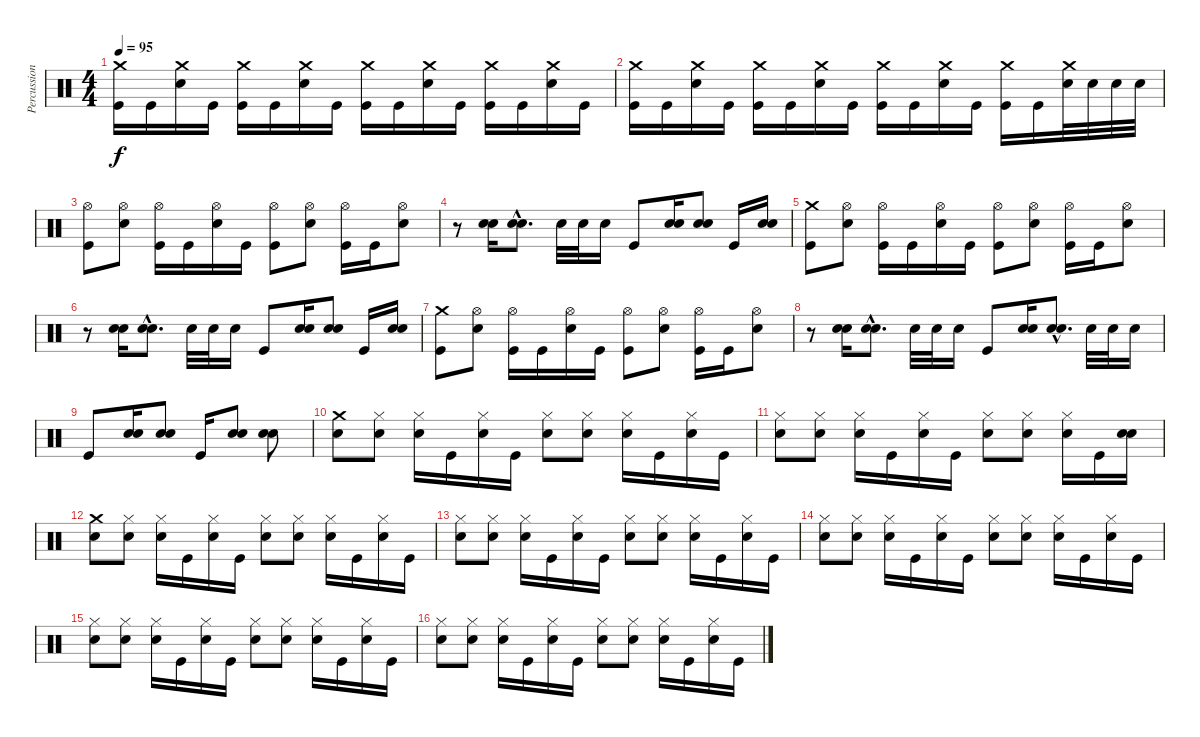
\track ("Percussion" "Percussion") {instrument percussion}
\staff {score}
\articulation defaults
\ts (4 4)
\tempo 95
\clef neutral
\ks c
("Crash medium (hit)" "Kick (hit)").16{dy f} "Kick (hit)".16 ("Crash medium (hit)" "Electric Snare (hit)").16 "Kick (hit)".16 ("Crash medium (hit)" "Kick (hit)").16 "Kick (hit)".16 ("Crash medium (hit)" "Electric Snare (hit)").16 "Kick (hit)".16 ("Crash medium (hit)" "Kick (hit)").16 "Kick (hit)".16 ("Crash medium (hit)" "Electric Snare (hit)").16 "Kick (hit)".16 ("Crash medium (hit)" "Kick (hit)").16 "Kick (hit)".16 ("Crash medium (hit)" "Electric Snare (hit)").16 "Kick (hit)".16 |
("Crash medium (hit)" "Kick (hit)").16 "Kick (hit)".16 ("Crash medium (hit)" "Electric Snare (hit)").16 "Kick (hit)".16 ("Crash medium (hit)" "Kick (hit)").16 "Kick (hit)".16 ("Crash medium (hit)" "Electric Snare (hit)").16 "Kick (hit)".16 ("Crash medium (hit)" "Kick (hit)").16 "Kick (hit)".16 ("Crash medium (hit)" "Electric Snare (hit)").16 "Kick (hit)".16 ("Crash medium (hit)" "Kick (hit)").16 "Kick (hit)".16 ("Crash medium (hit)" "Electric Snare (hit)").32 "Electric Snare (hit)".32 "Electric Snare (hit)".32 "Electric Snare (hit)".32 |
("Hi-Hat (open)" "Kick (hit)").8 ("Hi-Hat (open)" "Electric Snare (hit)").8 ("Hi-Hat (open)" "Kick (hit)").16 "Kick (hit)".16 ("Hi-Hat (open)" "Electric Snare (hit)").16 "Kick (hit)".16 ("Hi-Hat (open)" "Kick (hit)").8 ("Hi-Hat (open)" "Electric Snare (hit)").8 ("Hi-Hat (open)" "Kick (hit)").16 "Kick (hit)".16 ("Hi-Hat (open)" "Electric Snare (hit)").8 |
r.8 ("Electric Snare (hit)" "Electric Snare (hit)").16 ("Electric Snare (hit)"{hac} "Electric Snare (hit)"{hac}).8{d} "Electric Snare (hit)".32 "Electric Snare (hit)".32 "Electric Snare (hit)".16 "Kick (hit)".8 ("Electric Snare (hit)" "Electric Snare (hit)").16 ("Electric Snare (hit)" "Electric Snare (hit)").8 "Kick (hit)".16 ("Electric Snare (hit)" "Electric Snare (hit)").16 |
("Crash medium (hit)" "Kick (hit)").8 ("Hi-Hat (open)" "Electric Snare (hit)").8 ("Hi-Hat (open)" "Kick (hit)").16 "Kick (hit)".16 ("Hi-Hat (open)" "Electric Snare (hit)").16 "Kick (hit)".16 ("Hi-Hat (open)" "Kick (hit)").8 ("Hi-Hat (open)" "Electric Snare (hit)").8 ("Hi-Hat (open)" "Kick (hit)").16 "Kick (hit)".16 ("Hi-Hat (open)" "Electric Snare (hit)").8 |
r.8 ("Electric Snare (hit)" "Electric Snare (hit)").16 ("Electric Snare (hit)"{hac} "Electric Snare (hit)"{hac}).8{d} "Electric Snare (hit)".32 "Electric Snare (hit)".32 "Electric Snare (hit)".16 "Kick (hit)".8 ("Electric Snare (hit)" "Electric Snare (hit)").16 ("Electric Snare (hit)" "Electric Snare (hit)").8 "Kick (hit)".16 ("Electric Snare (hit)" "Electric Snare (hit)").16 |
("Crash medium (hit)" "Kick (hit)").8 ("Hi-Hat (open)" "Electric Snare (hit)").8 ("Hi-Hat (open)" "Kick (hit)").16 "Kick (hit)".16 ("Hi-Hat (open)" "Electric Snare (hit)").16 "Kick (hit)".16 ("Hi-Hat (open)" "Kick (hit)").8 ("Hi-Hat (open)" "Electric Snare (hit)").8 ("Hi-Hat (open)" "Kick (hit)").16 "Kick (hit)".16 ("Hi-Hat (open)" "Electric Snare (hit)").8 |
r.8 ("Electric Snare (hit)" "Electric Snare (hit)").16 ("Electric Snare (hit)"{hac} "Electric Snare (hit)"{hac}).8{d} "Electric Snare (hit)".32 "Electric Snare (hit)".32 "Electric Snare (hit)".16 "Kick (hit)".8 ("Electric Snare (hit)" "Electric Snare (hit)").16 ("Electric Snare (hit)"{hac} "Electric Snare (hit)"{hac}).8{d} "Electric Snare (hit)".32 "Electric Snare (hit)".32 "Electric Snare (hit)".16 |
"Kick (hit)".8 ("Electric Snare (hit)" "Electric Snare (hit)").16 ("Electric Snare (hit)" "Electric Snare (hit)").8 "Kick (hit)".16 ("Electric Snare (hit)" "Electric Snare (hit)").8 ("Electric Snare (hit)" "Electric Snare (hit)").8 |
("Crash medium (hit)" "Electric Snare (hit)").8 ("Hi-Hat (closed)" "Electric Snare (hit)").8 ("Hi-Hat (closed)" "Electric Snare (hit)").16 "Kick (hit)".16 ("Hi-Hat (closed)" "Electric Snare (hit)").16 "Kick (hit)".16 ("Hi-Hat (closed)" "Electric Snare (hit)").8 ("Hi-Hat (closed)" "Electric Snare (hit)").8 ("Hi-Hat (closed)" "Electric Snare (hit)").16 "Kick (hit)".16 ("Hi-Hat (closed)" "Electric Snare (hit)").16 "Kick (hit)".16 |
("Hi-Hat (closed)" "Electric Snare (hit)").8 ("Hi-Hat (closed)" "Electric Snare (hit)").8 ("Hi-Hat (closed)" "Electric Snare (hit)").16 "Kick (hit)".16 ("Hi-Hat (closed)" "Electric Snare (hit)").16 "Kick (hit)".16 ("Hi-Hat (closed)" "Electric Snare (hit)").8 ("Hi-Hat (closed)" "Electric Snare (hit)").8 ("Hi-Hat (closed)" "Electric Snare (hit)").16 "Kick (hit)".16 ("Electric Snare (hit)" "Electric Snare (hit)").16 |
("Crash medium (hit)" "Electric Snare (hit)").8 ("Hi-Hat (closed)" "Electric Snare (hit)").8 ("Hi-Hat (closed)" "Electric Snare (hit)").16 "Kick (hit)".16 ("Hi-Hat (closed)" "Electric Snare (hit)").16 "Kick (hit)".16 ("Hi-Hat (closed)" "Electric Snare (hit)").8 ("Hi-Hat (closed)" "Electric Snare (hit)").8 ("Hi-Hat (closed)" "Electric Snare (hit)").16 "Kick (hit)".16 ("Hi-Hat (closed)" "Electric Snare (hit)").16 "Kick (hit)".16 |
("Hi-Hat (closed)" "Electric Snare (hit)").8 ("Hi-Hat (closed)" "Electric Snare (hit)").8 ("Hi-Hat (closed)" "Electric Snare (hit)").16 "Kick (hit)".16 ("Hi-Hat (closed)" "Electric Snare (hit)").16 "Kick (hit)".16 ("Hi-Hat (closed)" "Electric Snare (hit)").8 ("Hi-Hat (closed)" "Electric Snare (hit)").8 ("Hi-Hat (closed)" "Electric Snare (hit)").16 "Kick (hit)".16 ("Hi-Hat (closed)" "Electric Snare (hit)").16 "Kick (hit)".16 |
("Hi-Hat (closed)" "Electric Snare (hit)").8 ("Hi-Hat (closed)" "Electric Snare (hit)").8 ("Hi-Hat (closed)" "Electric Snare (hit)").16 "Kick (hit)".16 ("Hi-Hat (closed)" "Electric Snare (hit)").16 "Kick (hit)".16 ("Hi-Hat (closed)" "Electric Snare (hit)").8 ("Hi-Hat (closed)" "Electric Snare (hit)").8 ("Hi-Hat (closed)" "Electric Snare (hit)").16 "Kick (hit)".16 ("Hi-Hat (closed)" "Electric Snare (hit)").16 "Kick (hit)".16 |
("Hi-Hat (closed)" "Electric Snare (hit)").8 ("Hi-Hat (closed)" "Electric Snare (hit)").8 ("Hi-Hat (closed)" "Electric Snare (hit)").16 "Kick (hit)".16 ("Hi-Hat (closed)" "Electric Snare (hit)").16 "Kick (hit)".16 ("Hi-Hat (closed)" "Electric Snare (hit)").8 ("Hi-Hat (closed)" "Electric Snare (hit)").8 ("Hi-Hat (closed)" "Electric Snare (hit)").16 "Kick (hit)".16 ("Hi-Hat (closed)" "Electric Snare (hit)").16 "Kick (hit)".16 |
("Hi-Hat (closed)" "Electric Snare (hit)").8 ("Hi-Hat (closed)" "Electric Snare (hit)").8 ("Hi-Hat (closed)" "Electric Snare (hit)").16 "Kick (hit)".16 ("Hi-Hat (closed)" "Electric Snare (hit)").16 "Kick (hit)".16 ("Hi-Hat (closed)" "Electric Snare (hit)").8 ("Hi-Hat (closed)" "Electric Snare (hit)").8 ("Hi-Hat (closed)" "Electric Snare (hit)").16 "Kick (hit)".16 ("Hi-Hat (closed)" "Electric Snare (hit)").16 "Kick (hit)".16
